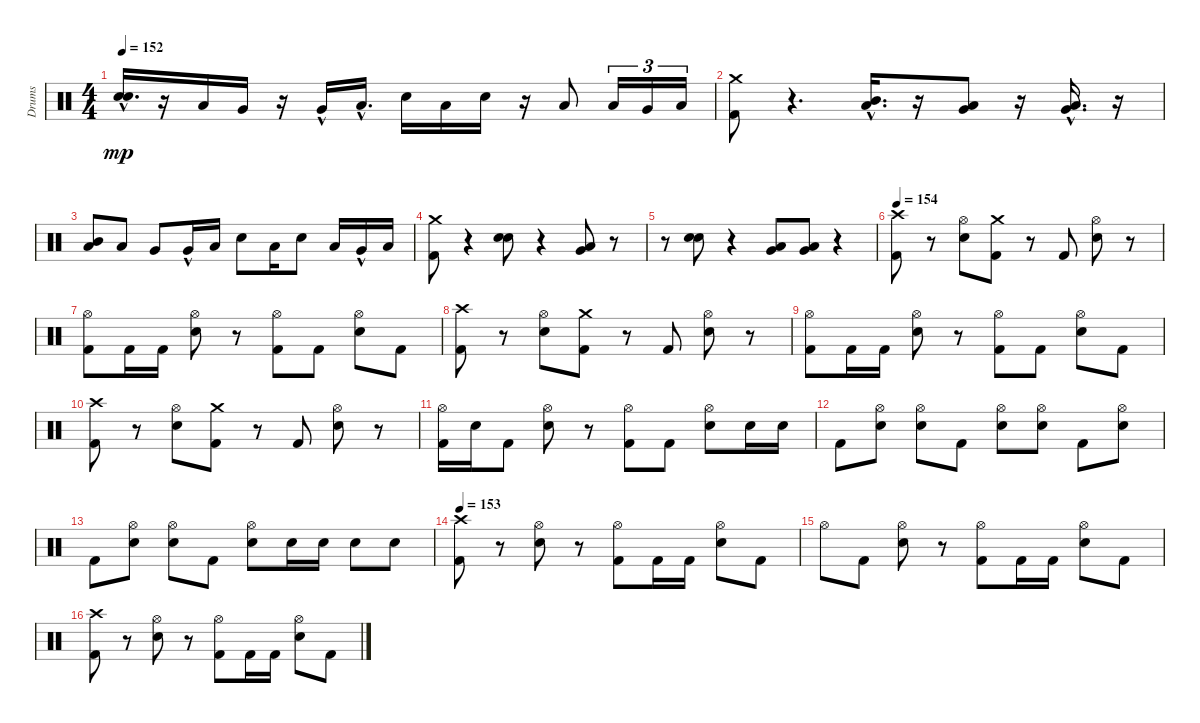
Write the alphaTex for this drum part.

\track ("Drums" "Drums") {instrument percussion}
\staff {score}
\articulation defaults
\ts (4 4)
\tempo 152
\clef neutral
\ks c
("Snare (hit) 2"{hac} "Electric Snare (hit)"{hac}).16{d dy mp} r.16 "Low Tom (hit)".16 "Very Low Tom (hit)".16 r.16 "Very Low Tom (hit)"{hac}.16 "Low Floor Tom (hit)"{hac}.16{d} "Electric Snare (hit)".16 "Low Tom (hit)".16 "Electric Snare (hit)".16 r.16 "Low Tom (hit)".8 "Low Tom (hit)".16{tu (3 2)} "Very Low Tom (hit)".16{tu (3 2)} "Low Floor Tom (hit)".16{tu (3 2)} |
("Crash medium (hit)" "Kick (hit) 2").8 r.4{d} ("Low Tom (hit)"{hac} "Mid Tom (hit)"{hac}).16{d} r.16 ("Low Tom (hit)" "Very Low Tom (hit)").8 r.16 ("Very Low Tom (hit)"{hac} "Low Floor Tom (hit)"{hac}).16{d} r.16 |
("Mid Tom (hit)" "Low Tom (hit)").8 "Low Tom (hit)".8 "Very Low Tom (hit)".8 "Very Low Tom (hit)"{hac}.16 "Low Floor Tom (hit)".16 "Electric Snare (hit)".8 "Low Tom (hit)".16 "Electric Snare (hit)".8 "Low Tom (hit)".16 "Very Low Tom (hit)"{hac}.16 "Low Floor Tom (hit)".16 |
("Kick (hit) 2" "Crash medium (hit)").8 r.4 ("Electric Snare (hit)" "Snare (hit) 2").8 r.4 ("Very Low Tom (hit)" "Low Tom (hit)").8 r.8 |
r.8 ("Snare (hit) 2" "Electric Snare (hit)").8 r.4 ("Very Low Tom (hit)" "Low Tom (hit)").8 ("Low Floor Tom (hit)" "Very Low Tom (hit)").8 r.4 |
\tempo 154
("Kick (hit) 2" "Crash high (hit)").8 r.8 ("Hi-Hat (open)" "Snare (hit) 2").8 ("Kick (hit) 2" "Crash medium (hit)").8 r.8 "Kick (hit) 2".8 ("Hi-Hat (open)" "Snare (hit) 2").8 r.8 |
("Hi-Hat (open)" "Kick (hit) 2").8 "Kick (hit) 2".16 "Kick (hit) 2".16 ("Snare (hit) 2" "Hi-Hat (open)").8 r.8 ("Hi-Hat (open)" "Kick (hit) 2").8 "Kick (hit) 2".8 ("Snare (hit) 2" "Hi-Hat (open)").8 "Kick (hit) 2".8 |
("Crash high (hit)" "Kick (hit) 2").8 r.8 ("Snare (hit) 2" "Hi-Hat (open)").8 ("Kick (hit) 2" "Crash medium (hit)").8 r.8 "Kick (hit) 2".8 ("Snare (hit) 2" "Hi-Hat (open)").8 r.8 |
("Hi-Hat (open)" "Kick (hit) 2").8 "Kick (hit) 2".16 "Kick (hit) 2".16 ("Hi-Hat (open)" "Snare (hit) 2").8 r.8 ("Kick (hit) 2" "Hi-Hat (open)").8 "Kick (hit) 2".8 ("Snare (hit) 2" "Hi-Hat (open)").8 "Kick (hit) 2".8 |
("Kick (hit) 2" "Crash high (hit)").8 r.8 ("Hi-Hat (open)" "Snare (hit) 2").8 ("Crash medium (hit)" "Kick (hit) 2").8 r.8 "Kick (hit) 2".8 ("Snare (hit) 2" "Hi-Hat (open)").8 r.8 |
("Kick (hit) 2" "Hi-Hat (open)").16 "Snare (hit) 2".16 "Kick (hit) 2".8 ("Hi-Hat (open)" "Snare (hit) 2").8 r.8 ("Kick (hit) 2" "Hi-Hat (open)").8 "Kick (hit) 2".8 ("Snare (hit) 2" "Hi-Hat (open)").8 "Snare (hit) 2".16 "Snare (hit) 2".16 |
"Kick (hit) 2".8 ("Snare (hit) 2" "Hi-Hat (open)").8 ("Snare (hit) 2" "Hi-Hat (open)").8 "Kick (hit) 2".8 ("Hi-Hat (open)" "Snare (hit) 2").8 ("Hi-Hat (open)" "Snare (hit) 2").8 "Kick (hit) 2".8 ("Hi-Hat (open)" "Snare (hit) 2").8 |
"Kick (hit) 2".8 ("Snare (hit) 2" "Hi-Hat (open)").8 ("Snare (hit) 2" "Hi-Hat (open)").8 "Kick (hit) 2".8 ("Hi-Hat (open)" "Snare (hit) 2").8 "Snare (hit) 2".16 "Snare (hit) 2".16 "Snare (hit) 2".8 "Snare (hit) 2".8 |
\tempo 153
("Crash high (hit)" "Kick (hit) 2").8 r.8 ("Hi-Hat (open)" "Snare (hit) 2").8 r.8 ("Hi-Hat (open)" "Kick (hit) 2").8 "Kick (hit) 2".16 "Kick (hit) 2".16 ("Snare (hit) 2" "Hi-Hat (open)").8 "Kick (hit) 2".8 |
"Hi-Hat (open)".8 "Kick (hit) 2".8 ("Snare (hit) 2" "Hi-Hat (open)").8 r.8 ("Kick (hit) 2" "Hi-Hat (open)").8 "Kick (hit) 2".16 "Kick (hit) 2".16 ("Snare (hit) 2" "Hi-Hat (open)").8 "Kick (hit) 2".8 |
("Crash high (hit)" "Kick (hit) 2").8 r.8 ("Snare (hit) 2" "Hi-Hat (open)").8 r.8 ("Kick (hit) 2" "Hi-Hat (open)").8 "Kick (hit) 2".16 "Kick (hit) 2".16 ("Snare (hit) 2" "Hi-Hat (open)").8 "Kick (hit) 2".8
